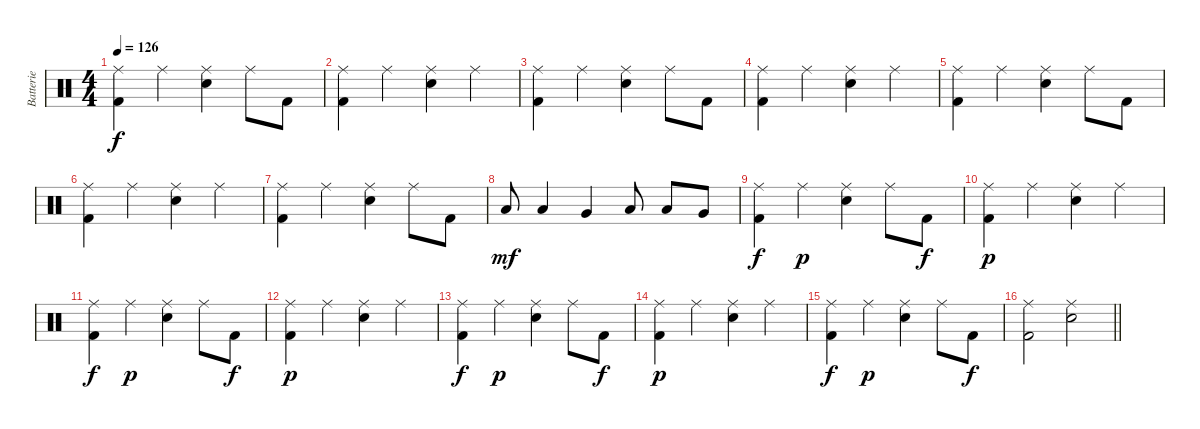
\track ("Batterie" "Batterie") {instrument percussion}
\staff {score}
\articulation defaults
\ts (4 4)
\tempo 126
\clef neutral
\ks c
("Ride (middle)" "Kick (hit) 2").4{dy f} "Ride (middle)".4 ("Ride (middle)" "Snare (hit) 2").4 "Ride (middle)".8 "Kick (hit) 2".8 |
("Ride (middle)" "Kick (hit) 2").4 "Ride (middle)".4 ("Ride (middle)" "Snare (hit) 2").4 "Ride (middle)".4 |
("Ride (middle)" "Kick (hit) 2").4 "Ride (middle)".4 ("Ride (middle)" "Snare (hit) 2").4 "Ride (middle)".8 "Kick (hit) 2".8 |
("Ride (middle)" "Kick (hit) 2").4 "Ride (middle)".4 ("Ride (middle)" "Snare (hit) 2").4 "Ride (middle)".4 |
("Ride (middle)" "Kick (hit) 2").4 "Ride (middle)".4 ("Ride (middle)" "Snare (hit) 2").4 "Ride (middle)".8 "Kick (hit) 2".8 |
("Ride (middle)" "Kick (hit) 2").4 "Ride (middle)".4 ("Ride (middle)" "Snare (hit) 2").4 "Ride (middle)".4 |
("Ride (middle)" "Kick (hit) 2").4 "Ride (middle)".4 ("Ride (middle)" "Snare (hit) 2").4 "Ride (middle)".8 "Kick (hit) 2".8 |
"Low Tom (hit)".8{dy mf} "Low Tom (hit)".4 "Very Low Tom (hit)".4 "Low Floor Tom (hit)".8 "Low Floor Tom (hit)".8 "Very Low Tom (hit)".8 |
("Ride (middle)" "Kick (hit) 2").4{dy f} "Ride (middle)".4{dy p} ("Ride (middle)" "Snare (hit) 2").4 "Ride (middle)".8 "Kick (hit) 2".8{dy f} |
("Ride (middle)" "Kick (hit) 2").4{dy p} "Ride (middle)".4 ("Ride (middle)" "Snare (hit) 2").4 "Ride (middle)".4 |
("Ride (middle)" "Kick (hit) 2").4{dy f} "Ride (middle)".4{dy p} ("Ride (middle)" "Snare (hit) 2").4 "Ride (middle)".8 "Kick (hit) 2".8{dy f} |
("Ride (middle)" "Kick (hit) 2").4{dy p} "Ride (middle)".4 ("Ride (middle)" "Snare (hit) 2").4 "Ride (middle)".4 |
("Ride (middle)" "Kick (hit) 2").4{dy f} "Ride (middle)".4{dy p} ("Ride (middle)" "Snare (hit) 2").4 "Ride (middle)".8 "Kick (hit) 2".8{dy f} |
("Ride (middle)" "Kick (hit) 2").4{dy p} "Ride (middle)".4 ("Ride (middle)" "Snare (hit) 2").4 "Ride (middle)".4 |
("Ride (middle)" "Kick (hit) 2").4{dy f} "Ride (middle)".4{dy p} ("Ride (middle)" "Snare (hit) 2").4 "Ride (middle)".8 "Kick (hit) 2".8{dy f} |
\barLineRight lightlight
("Ride (middle)" "Kick (hit) 2").2 ("Ride (middle)" "Snare (hit) 2").2
